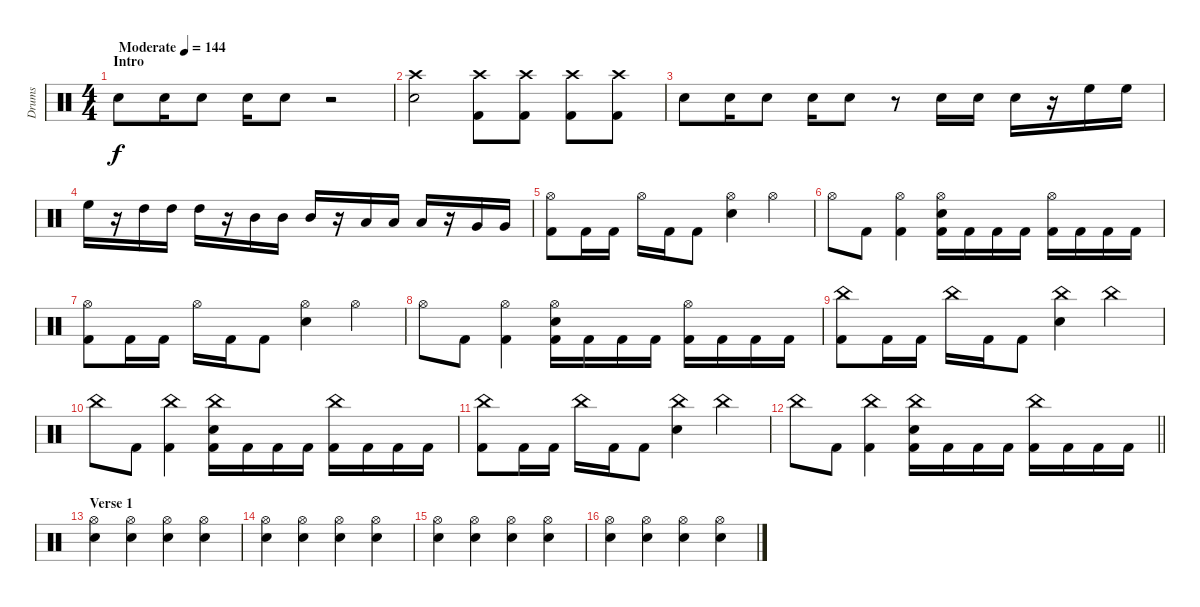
\track ("Drums" "Drums") {instrument percussion}
\staff {score}
\articulation defaults
\ts (4 4)
\section ("" "Intro")
\tempo (144 "Moderate")
\clef neutral
\ks c "Snare (hit) 2".8{dy f} "Snare (hit) 2".16 "Snare (hit) 2".8 "Snare (hit) 2".16 "Snare (hit) 2".8
r.2 |
("Crash high (hit)" "Snare (hit) 2").2 ("Crash high (hit)" "Kick (hit) 2").8 ("Crash high (hit)" "Kick (hit) 2").8 ("Crash high (hit)" "Kick (hit) 2").8 ("Crash high (hit)" "Kick (hit) 2").8 |
"Snare (hit) 2".8 "Snare (hit) 2".16 "Snare (hit) 2".8 "Snare (hit) 2".16 "Snare (hit) 2".8 r.8 "Snare (hit) 2".16 "Snare (hit) 2".16 "Snare (hit) 2".16 r.16 "High Floor Tom (hit)".16 "High Floor Tom (hit)".16 |
"High Floor Tom (hit)".16 r.16 "High Tom (hit)".16 "High Tom (hit)".16 "High Tom (hit)".16 r.16 "Mid Tom (hit)".16 "Mid Tom (hit)".16 "Mid Tom (hit)".16 r.16 "Low Tom (hit)".16 "Low Tom (hit)".16 "Low Tom (hit)".16 r.16 "Very Low Tom (hit)".16 "Very Low Tom (hit)".16 |
("Hi-Hat (open)" "Kick (hit) 2").8 "Kick (hit) 2".16 "Kick (hit) 2".16 "Hi-Hat (open)".16 "Kick (hit) 2".16 "Kick (hit) 2".8 ("Hi-Hat (open)" "Snare (hit) 2").4 "Hi-Hat (open)".4 |
"Hi-Hat (open)".8 "Kick (hit) 2".8 ("Hi-Hat (open)" "Kick (hit) 2").4 ("Hi-Hat (open)" "Snare (hit) 2" "Kick (hit) 2").16 "Kick (hit) 2".16 "Kick (hit) 2".16 "Kick (hit) 2".16 ("Hi-Hat (open)" "Kick (hit) 2").16 "Kick (hit) 2".16 "Kick (hit) 2".16 "Kick (hit) 2".16 |
("Hi-Hat (open)" "Kick (hit) 2").8 "Kick (hit) 2".16 "Kick (hit) 2".16 "Hi-Hat (open)".16 "Kick (hit) 2".16 "Kick (hit) 2".8 ("Hi-Hat (open)" "Snare (hit) 2").4 "Hi-Hat (open)".4 |
"Hi-Hat (open)".8 "Kick (hit) 2".8 ("Hi-Hat (open)" "Kick (hit) 2").4 ("Hi-Hat (open)" "Snare (hit) 2" "Kick (hit) 2").16 "Kick (hit) 2".16 "Kick (hit) 2".16 "Kick (hit) 2".16 ("Hi-Hat (open)" "Kick (hit) 2").16 "Kick (hit) 2".16 "Kick (hit) 2".16 "Kick (hit) 2".16 |
("China (hit)" "Kick (hit) 2").8 "Kick (hit) 2".16 "Kick (hit) 2".16 "China (hit)".16 "Kick (hit) 2".16 "Kick (hit) 2".8 ("China (hit)" "Snare (hit) 2").4 "China (hit)".4 |
"China (hit)".8 "Kick (hit) 2".8 ("China (hit)" "Kick (hit) 2").4 ("China (hit)" "Snare (hit) 2" "Kick (hit) 2").16 "Kick (hit) 2".16 "Kick (hit) 2".16 "Kick (hit) 2".16 ("China (hit)" "Kick (hit) 2").16 "Kick (hit) 2".16 "Kick (hit) 2".16 "Kick (hit) 2".16 |
("China (hit)" "Kick (hit) 2").8 "Kick (hit) 2".16 "Kick (hit) 2".16 "China (hit)".16 "Kick (hit) 2".16 "Kick (hit) 2".8 ("China (hit)" "Snare (hit) 2").4 "China (hit)".4 |
\barLineRight lightlight "China (hit)".8 "Kick (hit) 2".8
("China (hit)" "Kick (hit) 2").4 ("China (hit)" "Snare (hit) 2" "Kick (hit) 2").16 "Kick (hit) 2".16 "Kick (hit) 2".16 "Kick (hit) 2".16 ("China (hit)" "Kick (hit) 2").16 "Kick (hit) 2".16 "Kick (hit) 2".16 "Kick (hit) 2".16 |
\section ("" "Verse 1")
("Hi-Hat (open)" "Snare (hit) 2").4 ("Hi-Hat (open)" "Snare (hit) 2").4 ("Hi-Hat (open)" "Snare (hit) 2").4 ("Hi-Hat (open)" "Snare (hit) 2").4 |
("Hi-Hat (open)" "Snare (hit) 2").4 ("Hi-Hat (open)" "Snare (hit) 2").4 ("Hi-Hat (open)" "Snare (hit) 2").4 ("Hi-Hat (open)" "Snare (hit) 2").4 |
("Hi-Hat (open)" "Snare (hit) 2").4 ("Hi-Hat (open)" "Snare (hit) 2").4 ("Hi-Hat (open)" "Snare (hit) 2").4 ("Hi-Hat (open)" "Snare (hit) 2").4 |
("Hi-Hat (open)" "Snare (hit) 2").4 ("Hi-Hat (open)" "Snare (hit) 2").4 ("Hi-Hat (open)" "Snare (hit) 2").4 ("Hi-Hat (open)" "Snare (hit) 2").4
